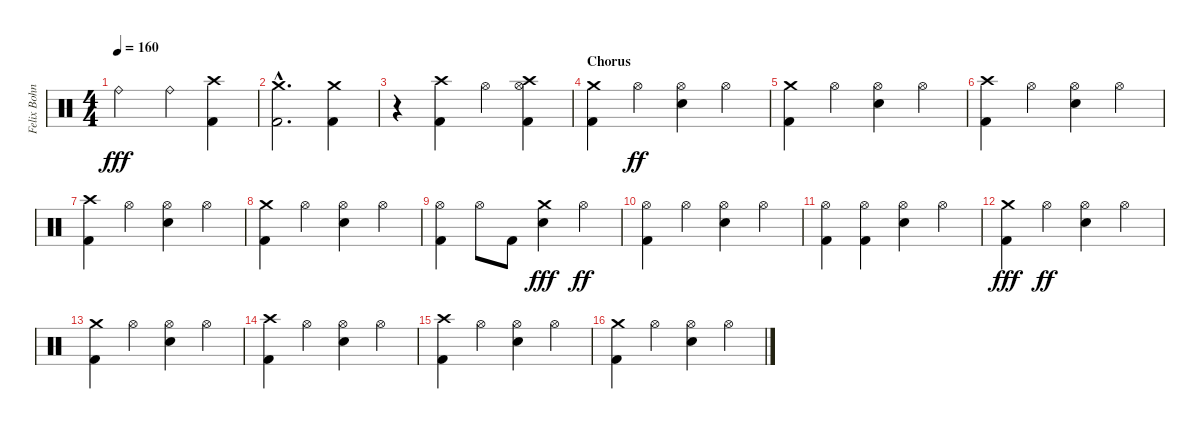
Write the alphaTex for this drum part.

\track ("Felix Bohnke" "Felix Bohn") {instrument percussion}
\staff {score}
\articulation defaults
\ts (4 4)
\tempo 160
\clef neutral
\ks c "Ride (bell)".2{dy fff} "Ride (bell)".4
("Kick (hit) 2" "Crash high (hit)").4 |
("Crash medium (hit)"{hac} "Kick (hit) 2"{hac}).2{d} ("Crash medium (hit)" "Kick (hit) 2").4 |
r.4 ("Kick (hit) 2" "Crash high (hit)").4 "Hi-Hat (open)".4 ("Hi-Hat (open)" "Crash high (hit)" "Kick (hit) 2").4 |
\section ("" "Chorus")
("Kick (hit) 2" "Crash medium (hit)").4 "Hi-Hat (open)".4{dy ff} ("Snare (hit) 2" "Hi-Hat (open)").4 "Hi-Hat (open)".4 |
("Kick (hit) 2" "Crash medium (hit)").4 "Hi-Hat (open)".4 ("Snare (hit) 2" "Hi-Hat (open)").4 "Hi-Hat (open)".4 |
("Kick (hit) 2" "Crash high (hit)").4 "Hi-Hat (open)".4 ("Snare (hit) 2" "Hi-Hat (open)").4 "Hi-Hat (open)".4 |
("Kick (hit) 2" "Crash high (hit)").4 "Hi-Hat (open)".4 ("Snare (hit) 2" "Hi-Hat (open)").4 "Hi-Hat (open)".4 |
("Kick (hit) 2" "Crash medium (hit)").4 "Hi-Hat (open)".4 ("Snare (hit) 2" "Hi-Hat (open)").4 "Hi-Hat (open)".4 |
("Kick (hit) 2" "Hi-Hat (open)").4 "Hi-Hat (open)".8 "Kick (hit) 2".8 ("Snare (hit) 2" "Crash medium (hit)").4{dy fff} "Hi-Hat (open)".4{dy ff} |
("Kick (hit) 2" "Hi-Hat (open)").4 "Hi-Hat (open)".4 ("Snare (hit) 2" "Hi-Hat (open)").4 "Hi-Hat (open)".4 |
("Kick (hit) 2" "Hi-Hat (open)").4 ("Kick (hit) 2" "Hi-Hat (open)").4 ("Snare (hit) 2" "Hi-Hat (open)").4 "Hi-Hat (open)".4 |
("Kick (hit) 2" "Crash medium (hit)").4{dy fff} "Hi-Hat (open)".4{dy ff} ("Snare (hit) 2" "Hi-Hat (open)").4 "Hi-Hat (open)".4 |
("Kick (hit) 2" "Crash medium (hit)").4 "Hi-Hat (open)".4 ("Snare (hit) 2" "Hi-Hat (open)").4 "Hi-Hat (open)".4 |
("Kick (hit) 2" "Crash high (hit)").4 "Hi-Hat (open)".4 ("Snare (hit) 2" "Hi-Hat (open)").4 "Hi-Hat (open)".4 |
("Kick (hit) 2" "Crash high (hit)").4 "Hi-Hat (open)".4 ("Snare (hit) 2" "Hi-Hat (open)").4 "Hi-Hat (open)".4 |
("Kick (hit) 2" "Crash medium (hit)").4 "Hi-Hat (open)".4 ("Snare (hit) 2" "Hi-Hat (open)").4 "Hi-Hat (open)".4
